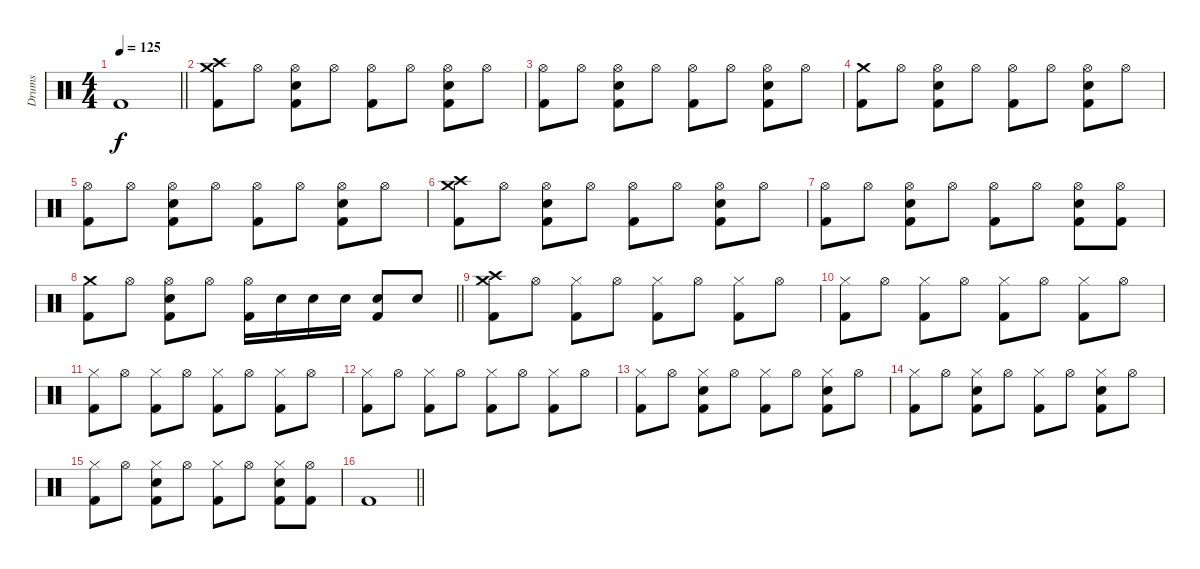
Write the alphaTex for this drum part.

\track ("Drums" "Drums") {instrument percussion}
\staff {score}
\articulation defaults
\ts (4 4)
\tempo 125
\clef neutral
\barLineRight lightlight
\ks c "Kick (hit) 2".1{dy f}
|
("Crash high (hit)" "Crash medium (hit)" "Kick (hit) 2").8 "Hi-Hat (open)".8 ("Hi-Hat (open)" "Electric Snare (hit)" "Kick (hit) 2").8 "Hi-Hat (open)".8 ("Hi-Hat (open)" "Kick (hit) 2").8 "Hi-Hat (open)".8 ("Hi-Hat (open)" "Electric Snare (hit)" "Kick (hit) 2").8 "Hi-Hat (open)".8 |
("Hi-Hat (open)" "Kick (hit) 2").8 "Hi-Hat (open)".8 ("Hi-Hat (open)" "Electric Snare (hit)" "Kick (hit) 2").8 "Hi-Hat (open)".8 ("Hi-Hat (open)" "Kick (hit) 2").8 "Hi-Hat (open)".8 ("Hi-Hat (open)" "Electric Snare (hit)" "Kick (hit) 2").8 "Hi-Hat (open)".8 |
("Crash medium (hit)" "Kick (hit) 2").8 "Hi-Hat (open)".8 ("Hi-Hat (open)" "Electric Snare (hit)" "Kick (hit) 2").8 "Hi-Hat (open)".8 ("Hi-Hat (open)" "Kick (hit) 2").8 "Hi-Hat (open)".8 ("Hi-Hat (open)" "Electric Snare (hit)" "Kick (hit) 2").8 "Hi-Hat (open)".8 |
("Hi-Hat (open)" "Kick (hit) 2").8 "Hi-Hat (open)".8 ("Hi-Hat (open)" "Electric Snare (hit)" "Kick (hit) 2").8 "Hi-Hat (open)".8 ("Hi-Hat (open)" "Kick (hit) 2").8 "Hi-Hat (open)".8 ("Hi-Hat (open)" "Electric Snare (hit)" "Kick (hit) 2").8 "Hi-Hat (open)".8 |
("Crash high (hit)" "Crash medium (hit)" "Kick (hit) 2").8 "Hi-Hat (open)".8 ("Hi-Hat (open)" "Electric Snare (hit)" "Kick (hit) 2").8 "Hi-Hat (open)".8 ("Hi-Hat (open)" "Kick (hit) 2").8 "Hi-Hat (open)".8 ("Hi-Hat (open)" "Electric Snare (hit)" "Kick (hit) 2").8 "Hi-Hat (open)".8 |
("Hi-Hat (open)" "Kick (hit) 2").8 "Hi-Hat (open)".8 ("Hi-Hat (open)" "Electric Snare (hit)" "Kick (hit) 2").8 "Hi-Hat (open)".8 ("Hi-Hat (open)" "Kick (hit) 2").8 "Hi-Hat (open)".8 ("Hi-Hat (open)" "Electric Snare (hit)" "Kick (hit) 2").8 ("Hi-Hat (open)" "Kick (hit) 2").8 |
\barLineRight lightlight
("Crash medium (hit)" "Kick (hit) 2").8 "Hi-Hat (open)".8 ("Hi-Hat (open)" "Electric Snare (hit)" "Kick (hit) 2").8 "Hi-Hat (open)".8 ("Hi-Hat (open)" "Kick (hit) 2").16 "Electric Snare (hit)".16 "Electric Snare (hit)".16 "Electric Snare (hit)".16 ("Electric Snare (hit)" "Kick (hit) 2").8 "Electric Snare (hit)".8 |
("Crash medium (hit)" "Crash high (hit)" "Kick (hit) 2").8 "Hi-Hat (open)".8 ("Hi-Hat (closed)" "Kick (hit) 2").8 "Hi-Hat (open)".8 ("Hi-Hat (closed)" "Kick (hit) 2").8 "Hi-Hat (open)".8 ("Hi-Hat (closed)" "Kick (hit) 2").8 "Hi-Hat (open)".8 |
("Hi-Hat (closed)" "Kick (hit) 2").8 "Hi-Hat (open)".8 ("Hi-Hat (closed)" "Kick (hit) 2").8 "Hi-Hat (open)".8 ("Hi-Hat (closed)" "Kick (hit) 2").8 "Hi-Hat (open)".8 ("Hi-Hat (closed)" "Kick (hit) 2").8 "Hi-Hat (open)".8 |
("Hi-Hat (closed)" "Kick (hit) 2").8 "Hi-Hat (open)".8 ("Hi-Hat (closed)" "Kick (hit) 2").8 "Hi-Hat (open)".8 ("Hi-Hat (closed)" "Kick (hit) 2").8 "Hi-Hat (open)".8 ("Hi-Hat (closed)" "Kick (hit) 2").8 "Hi-Hat (open)".8 |
("Hi-Hat (closed)" "Kick (hit) 2").8 "Hi-Hat (open)".8 ("Hi-Hat (closed)" "Kick (hit) 2").8 "Hi-Hat (open)".8 ("Hi-Hat (closed)" "Kick (hit) 2").8 "Hi-Hat (open)".8 ("Hi-Hat (closed)" "Kick (hit) 2").8 "Hi-Hat (open)".8 |
("Hi-Hat (closed)" "Kick (hit) 2").8 "Hi-Hat (open)".8 ("Hi-Hat (closed)" "Electric Snare (hit)" "Kick (hit) 2").8 "Hi-Hat (open)".8 ("Hi-Hat (closed)" "Kick (hit) 2").8 "Hi-Hat (open)".8 ("Hi-Hat (closed)" "Electric Snare (hit)" "Kick (hit) 2").8 "Hi-Hat (open)".8 |
("Hi-Hat (closed)" "Kick (hit) 2").8 "Hi-Hat (open)".8 ("Hi-Hat (closed)" "Electric Snare (hit)" "Kick (hit) 2").8 "Hi-Hat (open)".8 ("Hi-Hat (closed)" "Kick (hit) 2").8 "Hi-Hat (open)".8 ("Hi-Hat (closed)" "Electric Snare (hit)" "Kick (hit) 2").8 "Hi-Hat (open)".8 |
("Hi-Hat (closed)" "Kick (hit) 2").8 "Hi-Hat (open)".8 ("Hi-Hat (closed)" "Electric Snare (hit)" "Kick (hit) 2").8 "Hi-Hat (open)".8 ("Hi-Hat (closed)" "Kick (hit) 2").8 "Hi-Hat (open)".8 ("Hi-Hat (closed)" "Electric Snare (hit)" "Kick (hit) 2").8 ("Hi-Hat (open)" "Kick (hit) 2").8 |
\barLineRight lightlight "Kick (hit) 2".1
